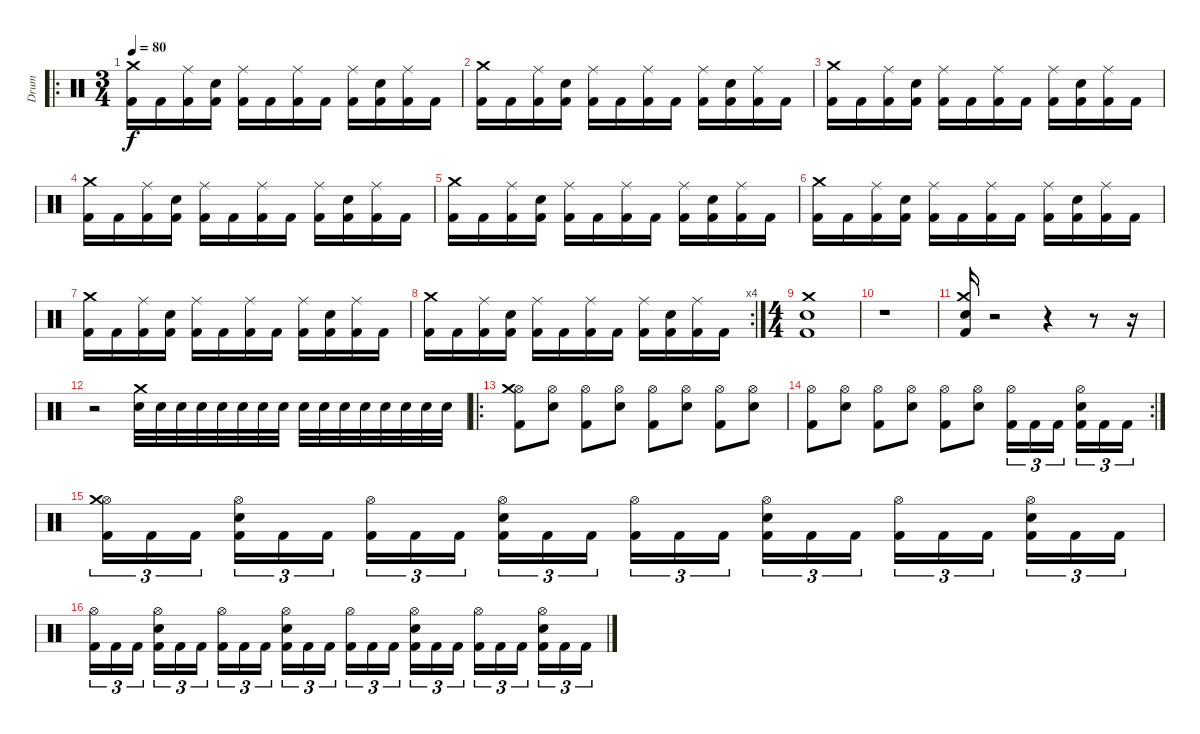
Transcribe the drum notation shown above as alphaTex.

\track ("Drum" "Drum") {instrument percussion}
\staff {score}
\articulation defaults
\ro
\ts (3 4)
\tempo 80
\clef neutral
\ks c
("Kick (hit) 2" "Crash medium (hit)").16{dy f} "Kick (hit) 2".16 ("Kick (hit) 2" "Ride (middle)").16 ("Kick (hit) 2" "Snare (hit) 2").16 ("Kick (hit) 2" "Ride (middle)").16 "Kick (hit) 2".16 ("Kick (hit) 2" "Ride (middle)").16 "Kick (hit) 2".16 ("Kick (hit) 2" "Ride (middle)").16 ("Kick (hit) 2" "Snare (hit) 2").16 ("Kick (hit) 2" "Ride (middle)").16 "Kick (hit) 2".16 |
("Kick (hit) 2" "Crash medium (hit)").16 "Kick (hit) 2".16 ("Kick (hit) 2" "Ride (middle)").16 ("Kick (hit) 2" "Snare (hit) 2").16 ("Kick (hit) 2" "Ride (middle)").16 "Kick (hit) 2".16 ("Kick (hit) 2" "Ride (middle)").16 "Kick (hit) 2".16 ("Kick (hit) 2" "Ride (middle)").16 ("Kick (hit) 2" "Snare (hit) 2").16 ("Kick (hit) 2" "Ride (middle)").16 "Kick (hit) 2".16 |
("Kick (hit) 2" "Crash medium (hit)").16 "Kick (hit) 2".16 ("Kick (hit) 2" "Ride (middle)").16 ("Kick (hit) 2" "Snare (hit) 2").16 ("Kick (hit) 2" "Ride (middle)").16 "Kick (hit) 2".16 ("Kick (hit) 2" "Ride (middle)").16 "Kick (hit) 2".16 ("Kick (hit) 2" "Ride (middle)").16 ("Kick (hit) 2" "Snare (hit) 2").16 ("Kick (hit) 2" "Ride (middle)").16 "Kick (hit) 2".16 |
("Kick (hit) 2" "Crash medium (hit)").16 "Kick (hit) 2".16 ("Kick (hit) 2" "Ride (middle)").16 ("Kick (hit) 2" "Snare (hit) 2").16 ("Kick (hit) 2" "Ride (middle)").16 "Kick (hit) 2".16 ("Kick (hit) 2" "Ride (middle)").16 "Kick (hit) 2".16 ("Kick (hit) 2" "Ride (middle)").16 ("Kick (hit) 2" "Snare (hit) 2").16 ("Kick (hit) 2" "Ride (middle)").16 "Kick (hit) 2".16 |
("Kick (hit) 2" "Crash medium (hit)").16 "Kick (hit) 2".16 ("Kick (hit) 2" "Ride (middle)").16 ("Kick (hit) 2" "Snare (hit) 2").16 ("Kick (hit) 2" "Ride (middle)").16 "Kick (hit) 2".16 ("Kick (hit) 2" "Ride (middle)").16 "Kick (hit) 2".16 ("Kick (hit) 2" "Ride (middle)").16 ("Kick (hit) 2" "Snare (hit) 2").16 ("Kick (hit) 2" "Ride (middle)").16 "Kick (hit) 2".16 |
("Kick (hit) 2" "Crash medium (hit)").16 "Kick (hit) 2".16 ("Kick (hit) 2" "Ride (middle)").16 ("Kick (hit) 2" "Snare (hit) 2").16 ("Kick (hit) 2" "Ride (middle)").16 "Kick (hit) 2".16 ("Kick (hit) 2" "Ride (middle)").16 "Kick (hit) 2".16 ("Kick (hit) 2" "Ride (middle)").16 ("Kick (hit) 2" "Snare (hit) 2").16 ("Kick (hit) 2" "Ride (middle)").16 "Kick (hit) 2".16 |
("Kick (hit) 2" "Crash medium (hit)").16 "Kick (hit) 2".16 ("Kick (hit) 2" "Ride (middle)").16 ("Kick (hit) 2" "Snare (hit) 2").16 ("Kick (hit) 2" "Ride (middle)").16 "Kick (hit) 2".16 ("Kick (hit) 2" "Ride (middle)").16 "Kick (hit) 2".16 ("Kick (hit) 2" "Ride (middle)").16 ("Kick (hit) 2" "Snare (hit) 2").16 ("Kick (hit) 2" "Ride (middle)").16 "Kick (hit) 2".16 |
\rc 4
("Kick (hit) 2" "Crash medium (hit)").16 "Kick (hit) 2".16 ("Kick (hit) 2" "Ride (middle)").16 ("Kick (hit) 2" "Snare (hit) 2").16 ("Kick (hit) 2" "Ride (middle)").16 "Kick (hit) 2".16 ("Kick (hit) 2" "Ride (middle)").16 "Kick (hit) 2".16 ("Kick (hit) 2" "Ride (middle)").16 ("Kick (hit) 2" "Snare (hit) 2").16 ("Kick (hit) 2" "Ride (middle)").16 "Kick (hit) 2".16 |
\ts (4 4)
("Kick (hit) 2" "Snare (hit) 2" "Crash medium (hit)").1 |
r.1 |
("Kick (hit) 2" "Snare (hit) 2" "Crash medium (hit)").16 r.2 r.4 r.8 r.16 |
r.2 ("Snare (hit) 2" "Crash medium (hit)").32 "Snare (hit) 2".32 "Snare (hit) 2".32 "Snare (hit) 2".32 "Snare (hit) 2".32 "Snare (hit) 2".32 "Snare (hit) 2".32 "Snare (hit) 2".32 "Snare (hit) 2".32 "Snare (hit) 2".32 "Snare (hit) 2".32 "Snare (hit) 2".32 "Snare (hit) 2".32 "Snare (hit) 2".32 "Snare (hit) 2".32 "Snare (hit) 2".32 |
\ro
("Hi-Hat (open)" "Kick (hit) 2" "Crash medium (hit)").8 ("Hi-Hat (open)" "Snare (hit) 2").8 ("Hi-Hat (open)" "Kick (hit) 2").8 ("Hi-Hat (open)" "Snare (hit) 2").8 ("Hi-Hat (open)" "Kick (hit) 2").8 ("Hi-Hat (open)" "Snare (hit) 2").8 ("Hi-Hat (open)" "Kick (hit) 2").8 ("Hi-Hat (open)" "Snare (hit) 2").8 |
\rc 2
("Hi-Hat (open)" "Kick (hit) 2").8 ("Hi-Hat (open)" "Snare (hit) 2").8 ("Hi-Hat (open)" "Kick (hit) 2").8 ("Hi-Hat (open)" "Snare (hit) 2").8 ("Hi-Hat (open)" "Kick (hit) 2").8 ("Hi-Hat (open)" "Snare (hit) 2").8 ("Hi-Hat (open)" "Kick (hit) 2").16{tu (3 2)} "Kick (hit) 2".16{tu (3 2)} "Kick (hit) 2".16{tu (3 2)} ("Hi-Hat (open)" "Kick (hit) 2" "Snare (hit) 2").16{tu (3 2)} "Kick (hit) 2".16{tu (3 2)} "Kick (hit) 2".16{tu (3 2)} |
("Hi-Hat (open)" "Kick (hit) 2" "Crash medium (hit)").16{tu (3 2)} "Kick (hit) 2".16{tu (3 2)} "Kick (hit) 2".16{tu (3 2)} ("Hi-Hat (open)" "Kick (hit) 2" "Snare (hit) 2").16{tu (3 2)} "Kick (hit) 2".16{tu (3 2)} "Kick (hit) 2".16{tu (3 2)} ("Hi-Hat (open)" "Kick (hit) 2").16{tu (3 2)} "Kick (hit) 2".16{tu (3 2)} "Kick (hit) 2".16{tu (3 2)} ("Hi-Hat (open)" "Kick (hit) 2" "Snare (hit) 2").16{tu (3 2)} "Kick (hit) 2".16{tu (3 2)} "Kick (hit) 2".16{tu (3 2)} ("Hi-Hat (open)" "Kick (hit) 2").16{tu (3 2)} "Kick (hit) 2".16{tu (3 2)} "Kick (hit) 2".16{tu (3 2)} ("Hi-Hat (open)" "Kick (hit) 2" "Snare (hit) 2").16{tu (3 2)} "Kick (hit) 2".16{tu (3 2)} "Kick (hit) 2".16{tu (3 2)} ("Hi-Hat (open)" "Kick (hit) 2").16{tu (3 2)} "Kick (hit) 2".16{tu (3 2)} "Kick (hit) 2".16{tu (3 2)} ("Hi-Hat (open)" "Kick (hit) 2" "Snare (hit) 2").16{tu (3 2)} "Kick (hit) 2".16{tu (3 2)} "Kick (hit) 2".16{tu (3 2)} |
("Hi-Hat (open)" "Kick (hit) 2").16{tu (3 2)} "Kick (hit) 2".16{tu (3 2)} "Kick (hit) 2".16{tu (3 2)} ("Hi-Hat (open)" "Kick (hit) 2" "Snare (hit) 2").16{tu (3 2)} "Kick (hit) 2".16{tu (3 2)} "Kick (hit) 2".16{tu (3 2)} ("Hi-Hat (open)" "Kick (hit) 2").16{tu (3 2)} "Kick (hit) 2".16{tu (3 2)} "Kick (hit) 2".16{tu (3 2)} ("Hi-Hat (open)" "Kick (hit) 2" "Snare (hit) 2").16{tu (3 2)} "Kick (hit) 2".16{tu (3 2)} "Kick (hit) 2".16{tu (3 2)} ("Hi-Hat (open)" "Kick (hit) 2").16{tu (3 2)} "Kick (hit) 2".16{tu (3 2)} "Kick (hit) 2".16{tu (3 2)} ("Hi-Hat (open)" "Kick (hit) 2" "Snare (hit) 2").16{tu (3 2)} "Kick (hit) 2".16{tu (3 2)} "Kick (hit) 2".16{tu (3 2)} ("Hi-Hat (open)" "Kick (hit) 2").16{tu (3 2)} "Kick (hit) 2".16{tu (3 2)} "Kick (hit) 2".16{tu (3 2)} ("Hi-Hat (open)" "Kick (hit) 2" "Snare (hit) 2").16{tu (3 2)} "Kick (hit) 2".16{tu (3 2)} "Kick (hit) 2".16{tu (3 2)}
